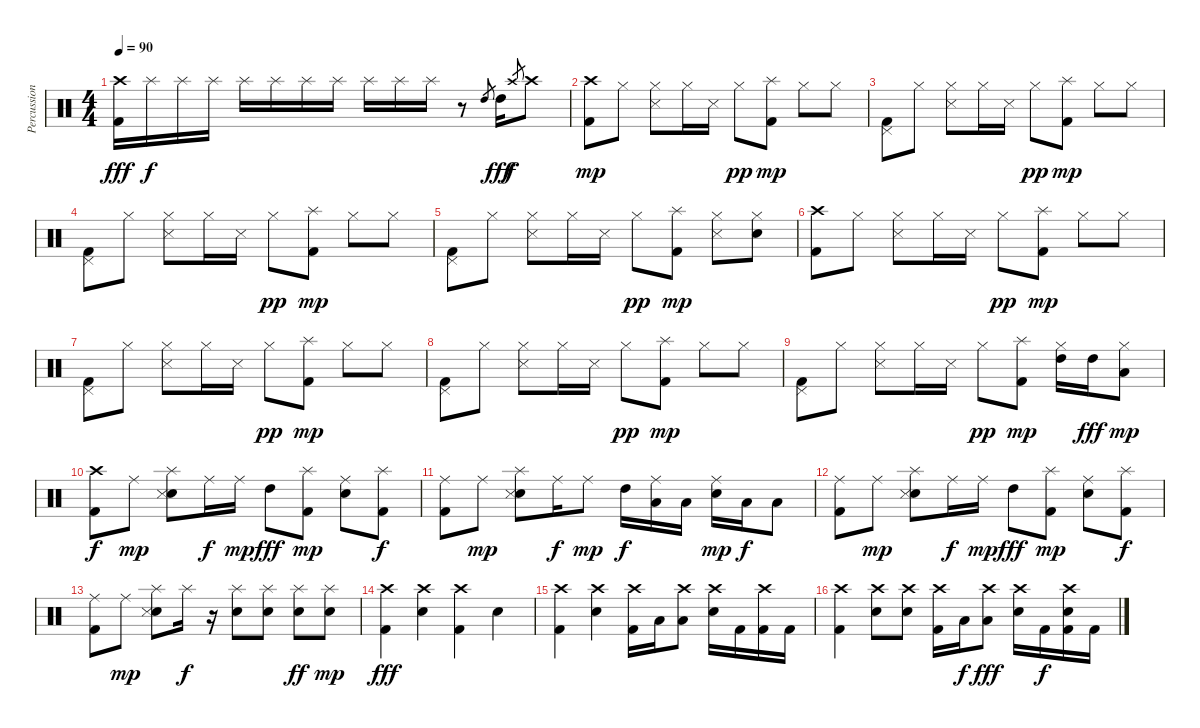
\track ("Percussion" "Percussion") {instrument percussion}
\staff {score}
\articulation defaults
\ts (4 4)
\tempo 90
\clef neutral
\ks c
("Kick (hit) 2" "Crash high (hit)").16{dy fff} "Splash (hit)"{tr (55 32)}.16{dy f} "Splash (hit)"{tr (55 32)}.16 "Splash (hit)"{tr (55 32)}.16 "Splash (hit)".16 "Splash (hit)"{tr (55 32)}.16 "Splash (hit)"{tr (55 32)}.16 "Splash (hit)"{tr (55 32)}.16 "Splash (hit)".16 "Splash (hit)"{tr (55 32)}.16 "Splash (hit)"{tr (55 32)}.16 r.8 "High Tom (hit)".8{gr} "High Tom (hit)".16{dy fff} "Crash high (hit)".8{gr dy f} "Crash high (hit)".8 |
("Kick (hit) 2" "Crash high (hit)").8{dy mp} "Hi-Hat (closed)".8 ("Snare (side stick) 3" "Hi-Hat (closed)").8 "Hi-Hat (closed)".16 "Snare (side stick) 3".16 "Hi-Hat (closed)".8{dy pp} ("Kick (hit) 2" "Splash (hit)").8{dy mp} "Hi-Hat (closed)".8 "Hi-Hat (closed)".8 |
("Kick (hit) 2" "Pedal Hi-Hat (hit)").8 "Hi-Hat (closed)".8 ("Snare (side stick) 3" "Hi-Hat (closed)").8 "Hi-Hat (closed)".16 "Snare (side stick) 3".16 "Hi-Hat (closed)".8{dy pp} ("Kick (hit) 2" "Splash (hit)").8{dy mp} "Hi-Hat (closed)".8 "Hi-Hat (closed)".8 |
("Kick (hit) 2" "Pedal Hi-Hat (hit)").8 "Hi-Hat (closed)".8 ("Snare (side stick) 3" "Hi-Hat (closed)").8 "Hi-Hat (closed)".16 "Snare (side stick) 3".16 "Hi-Hat (closed)".8{dy pp} ("Kick (hit) 2" "Splash (hit)").8{dy mp} "Hi-Hat (closed)".8 "Hi-Hat (closed)".8 |
("Kick (hit) 2" "Pedal Hi-Hat (hit)").8 "Hi-Hat (closed)".8 ("Snare (side stick) 3" "Hi-Hat (closed)").8 "Hi-Hat (closed)".16 "Snare (side stick) 3".16 "Hi-Hat (closed)".8{dy pp} ("Kick (hit) 2" "Splash (hit)").8{dy mp} ("Snare (side stick) 3" "Hi-Hat (closed)").8 ("Electric Snare (hit)" "Hi-Hat (closed)").8 |
("Kick (hit) 2" "Crash high (hit)").8 "Hi-Hat (closed)".8 ("Snare (side stick) 3" "Hi-Hat (closed)").8 "Hi-Hat (closed)".16 "Snare (side stick) 3".16 "Hi-Hat (closed)".8{dy pp} ("Kick (hit) 2" "Splash (hit)").8{dy mp} "Hi-Hat (closed)".8 "Hi-Hat (closed)".8 |
("Kick (hit) 2" "Pedal Hi-Hat (hit)").8 "Hi-Hat (closed)".8 ("Snare (side stick) 3" "Hi-Hat (closed)").8 "Hi-Hat (closed)".16 "Snare (side stick) 3".16 "Hi-Hat (closed)".8{dy pp} ("Kick (hit) 2" "Splash (hit)").8{dy mp} "Hi-Hat (closed)".8 "Hi-Hat (closed)".8 |
("Kick (hit) 2" "Pedal Hi-Hat (hit)").8 "Hi-Hat (closed)".8 ("Snare (side stick) 3" "Hi-Hat (closed)").8 "Hi-Hat (closed)".16 "Snare (side stick) 3".16 "Hi-Hat (closed)".8{dy pp} ("Kick (hit) 2" "Splash (hit)").8{dy mp} "Hi-Hat (closed)".8 "Hi-Hat (closed)".8 |
("Kick (hit) 2" "Pedal Hi-Hat (hit)").8 "Hi-Hat (closed)".8 ("Snare (side stick) 3" "Hi-Hat (closed)").8 "Hi-Hat (closed)".16 "Snare (side stick) 3".16 "Hi-Hat (closed)".8{dy pp} ("Kick (hit) 2" "Splash (hit)").8{dy mp} ("High Tom (hit)" "Hi-Hat (closed)").16 "High Tom (hit)".16{dy fff} ("Low Tom (hit)" "Hi-Hat (closed)").8{dy mp} |
("Kick (hit) 2" "Crash high (hit)").8{dy f} "Ride (middle)".8{dy mp} ("Electric Snare (hit)" "Snare (side stick) 3" "Splash (hit)").8 "Ride (middle)".16{dy f} "Ride (middle)".16{dy mp} "High Tom (hit)".8{dy fff} ("Kick (hit) 2" "Splash (hit)").8{dy mp} ("Electric Snare (hit)" "Ride (middle)").8 ("Kick (hit) 2" "Splash (hit)").8{dy f} |
("Kick (hit) 2" "Ride (middle)").8 "Ride (middle)".8{dy mp} ("Electric Snare (hit)" "Snare (side stick) 3" "Splash (hit)").8 "Ride (middle)".16{dy f} "Ride (middle)".8{dy mp} "High Tom (hit)".16{dy f} ("Low Tom (hit)" "Ride (middle)").16 "Low Tom (hit)".16 ("Electric Snare (hit)" "Ride (middle)").16{dy mp} "Low Tom (hit)".16{dy f} "Low Tom (hit)".8 |
("Kick (hit) 2" "Ride (middle)").8 "Ride (middle)".8{dy mp} ("Electric Snare (hit)" "Snare (side stick) 3" "Splash (hit)").8 "Ride (middle)".16{dy f} "Ride (middle)".16{dy mp} "High Tom (hit)".8{dy fff} ("Kick (hit) 2" "Splash (hit)").8{dy mp} ("Electric Snare (hit)" "Ride (middle)").8 ("Kick (hit) 2" "Splash (hit)").8{dy f} |
("Kick (hit) 2" "Ride (middle)").8 "Ride (middle)".8{dy mp} ("Electric Snare (hit)" "Snare (side stick) 3" "Splash (hit)").8 "Splash (hit)".16{dy f} r.16 ("Electric Snare (hit)"{tr (40 32)} "Splash (hit)").8 ("Electric Snare (hit)"{tr (40 32)} "Splash (hit)").8 ("Electric Snare (hit)"{tr (40 32)} "Splash (hit)").8{dy ff} ("Electric Snare (hit)"{tr (40 32)} "Splash (hit)").8{dy mp} |
("Kick (hit) 2" "Crash high (hit)").4{dy fff} ("Electric Snare (hit)" "Crash high (hit)").4 ("Kick (hit) 2" "Crash high (hit)").4 "Electric Snare (hit)".4 |
("Kick (hit) 2" "Crash high (hit)").4 ("Electric Snare (hit)" "Crash high (hit)").4 ("Kick (hit) 2" "Crash high (hit)").16 "Low Tom (hit)".16 ("Low Tom (hit)" "Crash high (hit)").8 ("Electric Snare (hit)" "Crash high (hit)").16 "Kick (hit) 2".16 ("Kick (hit) 2" "Crash high (hit)").16 "Kick (hit) 2".16 |
("Kick (hit) 2" "Crash high (hit)").4 ("Electric Snare (hit)" "Crash high (hit)").8 ("Electric Snare (hit)" "Crash high (hit)").8 ("Kick (hit) 2" "Crash high (hit)").16 "Low Tom (hit)".16{dy f} ("Low Tom (hit)" "Crash high (hit)").8{dy fff} ("Electric Snare (hit)" "Crash high (hit)").16 "Kick (hit) 2".16{dy f} ("Electric Snare (hit)" "Kick (hit) 2" "Crash high (hit)").16 "Kick (hit) 2".16
